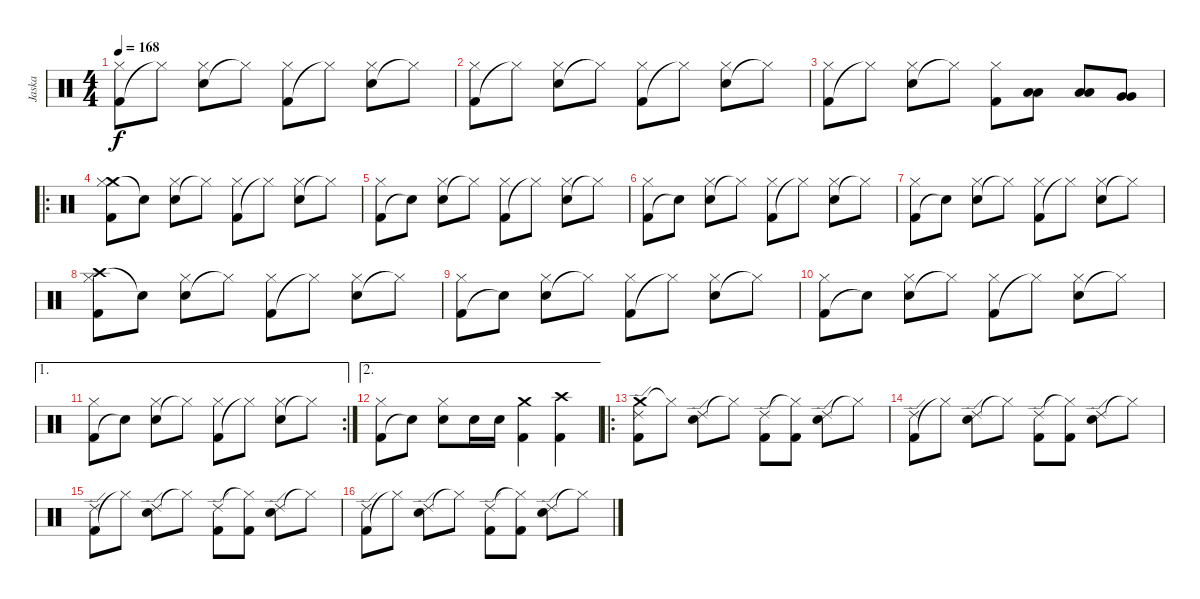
\track ("Jaska" "Jaska") {instrument percussion}
\staff {score}
\articulation defaults
\ts (4 4)
\tempo 168
\clef neutral
\ks c
("Kick (hit) 2" "Hi-Hat (closed)").8{dy f} "Hi-Hat (closed)"{t}.8 ("Electric Snare (hit)" "Hi-Hat (closed)").8 "Hi-Hat (closed)"{t}.8 ("Kick (hit) 2" "Hi-Hat (closed)").8 "Hi-Hat (closed)"{t}.8 ("Electric Snare (hit)" "Hi-Hat (closed)").8 "Hi-Hat (closed)"{t}.8 |
("Kick (hit) 2" "Hi-Hat (closed)").8 "Hi-Hat (closed)"{t}.8 ("Electric Snare (hit)" "Hi-Hat (closed)").8 "Hi-Hat (closed)"{t}.8 ("Kick (hit) 2" "Hi-Hat (closed)").8 "Hi-Hat (closed)"{t}.8 ("Electric Snare (hit)" "Hi-Hat (closed)").8 "Hi-Hat (closed)"{t}.8 |
("Kick (hit) 2" "Hi-Hat (closed)").8 "Hi-Hat (closed)"{t}.8 ("Electric Snare (hit)" "Hi-Hat (closed)").8 "Hi-Hat (closed)"{t}.8 ("Kick (hit) 2" "Hi-Hat (closed)").8 ("Low Tom (hit)" "Low Tom (hit)").8 ("Low Tom (hit)" "Low Tom (hit)").8 ("Very Low Tom (hit)" "Very Low Tom (hit)").8 |
\ro
("Crash medium (hit)" "Kick (hit) 2" "Hi-Hat (closed)").8 "Snare (hit)"{t}.8 ("Electric Snare (hit)" "Hi-Hat (closed)").8 "Hi-Hat (closed)"{t}.8 ("Kick (hit) 2" "Hi-Hat (closed)").8 "Hi-Hat (closed)"{t}.8 ("Electric Snare (hit)" "Hi-Hat (closed)").8 "Hi-Hat (closed)"{t}.8 |
("Kick (hit) 2" "Hi-Hat (closed)").8 "Snare (hit)"{t}.8 ("Electric Snare (hit)" "Hi-Hat (closed)").8 "Hi-Hat (closed)"{t}.8 ("Kick (hit) 2" "Hi-Hat (closed)").8 "Hi-Hat (closed)"{t}.8 ("Electric Snare (hit)" "Hi-Hat (closed)").8 "Hi-Hat (closed)"{t}.8 |
("Kick (hit) 2" "Hi-Hat (closed)").8 "Snare (hit)"{t}.8 ("Electric Snare (hit)" "Hi-Hat (closed)").8 "Hi-Hat (closed)"{t}.8 ("Kick (hit) 2" "Hi-Hat (closed)").8 "Hi-Hat (closed)"{t}.8 ("Electric Snare (hit)" "Hi-Hat (closed)").8 "Hi-Hat (closed)"{t}.8 |
("Kick (hit) 2" "Hi-Hat (closed)").8 "Snare (hit)"{t}.8 ("Electric Snare (hit)" "Hi-Hat (closed)").8 "Hi-Hat (closed)"{t}.8 ("Kick (hit) 2" "Hi-Hat (closed)").8 "Hi-Hat (closed)"{t}.8 ("Electric Snare (hit)" "Hi-Hat (closed)").8 "Hi-Hat (closed)"{t}.8 |
("Crash high (hit)" "Kick (hit) 2" "Hi-Hat (closed)").8 "Snare (hit)"{t}.8 ("Electric Snare (hit)" "Hi-Hat (closed)").8 "Hi-Hat (closed)"{t}.8 ("Kick (hit) 2" "Hi-Hat (closed)").8 "Hi-Hat (closed)"{t}.8 ("Electric Snare (hit)" "Hi-Hat (closed)").8 "Hi-Hat (closed)"{t}.8 |
("Kick (hit) 2" "Hi-Hat (closed)").8 "Snare (hit)"{t}.8 ("Electric Snare (hit)" "Hi-Hat (closed)").8 "Hi-Hat (closed)"{t}.8 ("Kick (hit) 2" "Hi-Hat (closed)").8 "Hi-Hat (closed)"{t}.8 ("Electric Snare (hit)" "Hi-Hat (closed)").8 "Hi-Hat (closed)"{t}.8 |
("Kick (hit) 2" "Hi-Hat (closed)").8 "Snare (hit)"{t}.8 ("Electric Snare (hit)" "Hi-Hat (closed)").8 "Hi-Hat (closed)"{t}.8 ("Kick (hit) 2" "Hi-Hat (closed)").8 "Hi-Hat (closed)"{t}.8 ("Electric Snare (hit)" "Hi-Hat (closed)").8 "Hi-Hat (closed)"{t}.8 |
\ae 1
\rc 2
("Kick (hit) 2" "Hi-Hat (closed)").8 "Snare (hit)"{t}.8 ("Electric Snare (hit)" "Hi-Hat (closed)").8 "Hi-Hat (closed)"{t}.8 ("Kick (hit) 2" "Hi-Hat (closed)").8 "Hi-Hat (closed)"{t}.8 ("Electric Snare (hit)" "Hi-Hat (closed)").8 "Hi-Hat (closed)"{t}.8 |
\ae 2
("Kick (hit) 2" "Hi-Hat (closed)").8 "Snare (hit)"{t}.8 ("Electric Snare (hit)" "Hi-Hat (closed)").8 "Electric Snare (hit)".16 "Electric Snare (hit)".16 ("Crash medium (hit)" "Kick (hit) 2").4 ("Crash high (hit)" "Kick (hit) 2").4 |
\ro
("Crash medium (hit)" "Kick (hit) 2" "Ride (edge) 2").8 "Hi-Hat (closed)"{t}.8 ("Electric Snare (hit)" "Ride (edge) 2").8 "Hi-Hat (closed)"{t}.8 ("Kick (hit) 2" "Ride (edge) 2").8 ("Kick (hit) 2" "Hi-Hat (closed)"{t}).8 ("Electric Snare (hit)" "Ride (edge) 2").8 "Hi-Hat (closed)"{t}.8 |
("Kick (hit) 2" "Ride (edge) 2").8 "Hi-Hat (closed)"{t}.8 ("Electric Snare (hit)" "Ride (edge) 2").8 "Hi-Hat (closed)"{t}.8 ("Kick (hit) 2" "Ride (edge) 2").8 ("Kick (hit) 2" "Hi-Hat (closed)"{t}).8 ("Electric Snare (hit)" "Ride (edge) 2").8 "Hi-Hat (closed)"{t}.8 |
("Kick (hit) 2" "Ride (edge) 2").8 "Hi-Hat (closed)"{t}.8 ("Electric Snare (hit)" "Ride (edge) 2").8 "Hi-Hat (closed)"{t}.8 ("Kick (hit) 2" "Ride (edge) 2").8 ("Kick (hit) 2" "Hi-Hat (closed)"{t}).8 ("Electric Snare (hit)" "Ride (edge) 2").8 "Hi-Hat (closed)"{t}.8 |
("Kick (hit) 2" "Ride (edge) 2").8 "Hi-Hat (closed)"{t}.8 ("Electric Snare (hit)" "Ride (edge) 2").8 "Hi-Hat (closed)"{t}.8 ("Kick (hit) 2" "Ride (edge) 2").8 ("Kick (hit) 2" "Hi-Hat (closed)"{t}).8 ("Electric Snare (hit)" "Ride (edge) 2").8 "Hi-Hat (closed)"{t}.8
